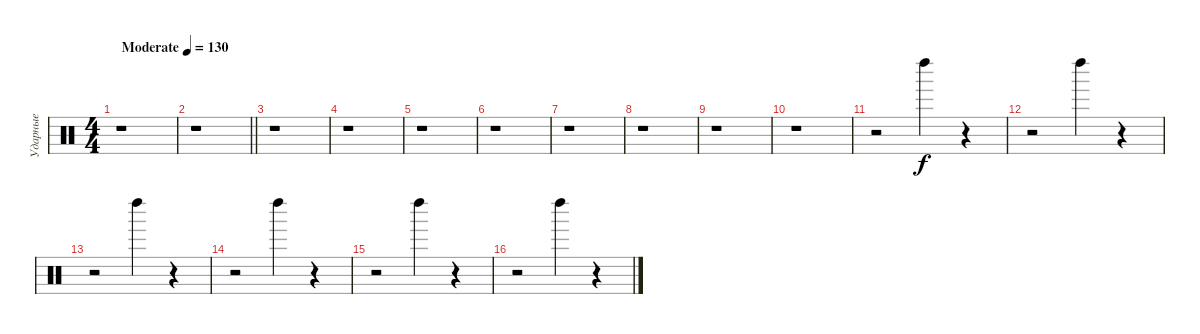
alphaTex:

\track ("Ударные" "Ударные") {instrument percussion}
\staff {score}
\articulation defaults
\ts (4 4)
\tempo (130 "Moderate")
\clef neutral
\ks c
r.1{dy f} |
\barLineRight lightlight
r.1 |
r.1 |
r.1 |
r.1 |
r.1 |
r.1 |
r.1 |
r.1 |
r.1 |
r.2 "Left Maraca (hit)".4 r.4 |
r.2 "Left Maraca (hit)".4 r.4 |
r.2 "Left Maraca (hit)".4 r.4 |
r.2 "Left Maraca (hit)".4 r.4 |
r.2 "Left Maraca (hit)".4 r.4 |
r.2 "Left Maraca (hit)".4 r.4
